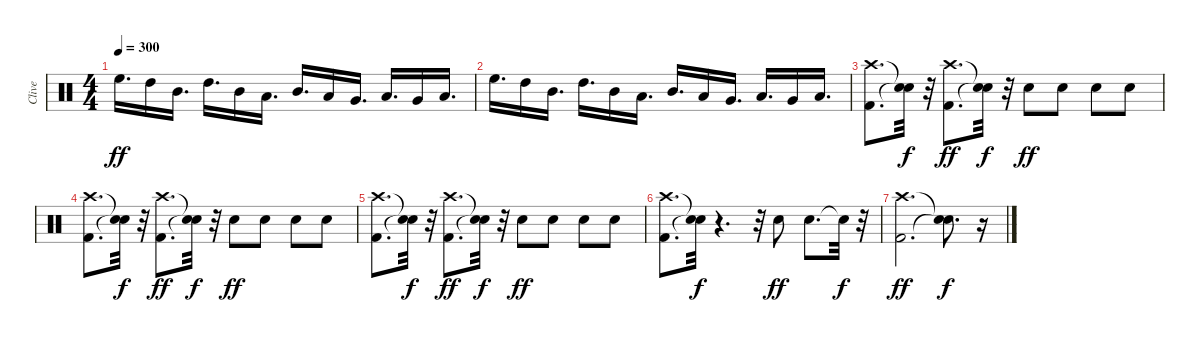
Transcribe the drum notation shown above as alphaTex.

\track ("Clive" "Clive") {instrument percussion}
\staff {score}
\articulation defaults
\ts (4 4)
\tempo 300
\clef neutral
\ks c "High Floor Tom (hit)".16{d dy ff} "High Tom (hit)".16 "Mid Tom (hit)".16{d} "High Tom (hit)".16{d} "Mid Tom (hit)".16 "Low Tom (hit)".16{d} "Mid Tom (hit)".16{d} "Low Tom (hit)".16 "Very Low Tom (hit)".16{d} "Low Tom (hit)".16{d} "Very Low Tom (hit)".16 "Low Floor Tom (hit)".16{d}
|
"High Floor Tom (hit)".16{d} "High Tom (hit)".16 "Mid Tom (hit)".16{d} "High Tom (hit)".16{d} "Mid Tom (hit)".16 "Low Tom (hit)".16{d} "Mid Tom (hit)".16{d} "Low Tom (hit)".16 "Very Low Tom (hit)".16{d} "Low Tom (hit)".16{d} "Very Low Tom (hit)".16 "Low Floor Tom (hit)".16{d} |
("Kick (hit) 2" "Crash high (hit)").8{d} ("Snare (hit)"{t} "Snare (hit)"{t}).32{dy f} r.32 ("Kick (hit) 2" "Crash high (hit)").8{d dy ff} ("Snare (hit)"{t} "Snare (hit)"{t}).32{dy f} r.32 "Snare (hit) 2".8{dy ff} "Snare (hit) 2".8 "Snare (hit) 2".8 "Snare (hit) 2".8 |
("Kick (hit) 2" "Crash high (hit)").8{d} ("Snare (hit)"{t} "Snare (hit)"{t}).32{dy f} r.32 ("Kick (hit) 2" "Crash high (hit)").8{d dy ff} ("Snare (hit)"{t} "Snare (hit)"{t}).32{dy f} r.32 "Snare (hit) 2".8{dy ff} "Snare (hit) 2".8 "Snare (hit) 2".8 "Snare (hit) 2".8 |
("Kick (hit) 2" "Crash high (hit)").8{d} ("Snare (hit)"{t} "Snare (hit)"{t}).32{dy f} r.32 ("Kick (hit) 2" "Crash high (hit)").8{d dy ff} ("Snare (hit)"{t} "Snare (hit)"{t}).32{dy f} r.32 "Snare (hit) 2".8{dy ff} "Snare (hit) 2".8 "Snare (hit) 2".8 "Snare (hit) 2".8 |
("Kick (hit) 2" "Crash high (hit)").8{d} ("Snare (hit)"{t} "Snare (hit)"{t}).32{dy f} r.4{d} r.32 "Snare (hit) 2".8{dy ff} "Snare (hit) 2".8{d} "Snare (hit)"{t}.32{dy f} r.32 |
("Kick (hit) 2" "Crash high (hit)").2{d dy ff} ("Snare (hit)"{t} "Snare (hit)"{t}).8{d dy f} r.16
